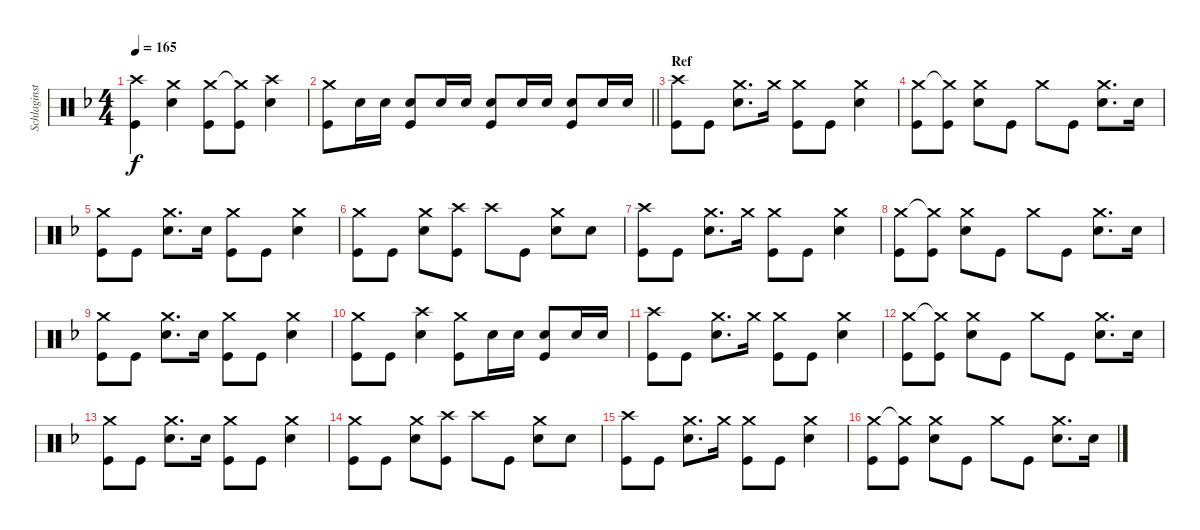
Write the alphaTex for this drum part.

\track ("Schlaginstrumente - Auswahl" "Schlaginst") {instrument percussion}
\staff {score}
\articulation defaults
\ts (4 4)
\tempo 165
\clef neutral
\ks f
("Crash high (hit)" "Kick (hit)").4{dy f} ("Crash medium (hit)" "Snare (hit) 2").4 ("Crash medium (hit)" "Kick (hit)").8 ("Crash medium (hit)"{t} "Kick (hit)").8 ("Crash high (hit)" "Snare (hit) 2").4 |
\barLineRight lightlight
("Crash medium (hit)" "Kick (hit)").8 "Snare (hit) 2".16 "Snare (hit) 2".16 ("Snare (hit) 2" "Kick (hit)").8 "Snare (hit) 2".16 "Snare (hit) 2".16 ("Snare (hit) 2" "Kick (hit)").8 "Snare (hit) 2".16 "Snare (hit) 2".16 ("Snare (hit) 2" "Kick (hit)").8 "Snare (hit) 2".16 "Snare (hit) 2".16 |
\section ("" "Ref")
("Crash high (hit)" "Kick (hit)").8 "Kick (hit)".8 ("Crash medium (hit)" "Snare (hit) 2").8{d} "Crash medium (hit)".16 ("Crash medium (hit)" "Kick (hit)").8 "Kick (hit)".8 ("Crash medium (hit)" "Snare (hit) 2").4 |
("Crash medium (hit)" "Kick (hit)").8 ("Crash medium (hit)"{t} "Kick (hit)").8 ("Crash medium (hit)" "Snare (hit) 2").8 "Kick (hit)".8 "Crash medium (hit)".8 "Kick (hit)".8 ("Crash medium (hit)" "Snare (hit) 2").8{d} "Snare (hit) 2".16 |
("Crash medium (hit)" "Kick (hit)").8 "Kick (hit)".8 ("Crash medium (hit)" "Snare (hit) 2").8{d} "Snare (hit) 2".16 ("Crash medium (hit)" "Kick (hit)").8 "Kick (hit)".8 ("Crash medium (hit)" "Snare (hit) 2").4 |
("Crash medium (hit)" "Kick (hit)").8 "Kick (hit)".8 ("Crash medium (hit)" "Snare (hit) 2").8 ("Crash high (hit)" "Kick (hit)").8 "Crash high (hit)".8 "Kick (hit)".8 ("Crash medium (hit)" "Snare (hit) 2").8 "Snare (hit) 2".8 |
("Crash high (hit)" "Kick (hit)").8 "Kick (hit)".8 ("Crash medium (hit)" "Snare (hit) 2").8{d} "Crash medium (hit)".16 ("Crash medium (hit)" "Kick (hit)").8 "Kick (hit)".8 ("Crash medium (hit)" "Snare (hit) 2").4 |
("Crash medium (hit)" "Kick (hit)").8 ("Crash medium (hit)"{t} "Kick (hit)").8 ("Crash medium (hit)" "Snare (hit) 2").8 "Kick (hit)".8 "Crash medium (hit)".8 "Kick (hit)".8 ("Crash medium (hit)" "Snare (hit) 2").8{d} "Snare (hit) 2".16 |
("Crash medium (hit)" "Kick (hit)").8 "Kick (hit)".8 ("Crash medium (hit)" "Snare (hit) 2").8{d} "Snare (hit) 2".16 ("Crash medium (hit)" "Kick (hit)").8 "Kick (hit)".8 ("Crash medium (hit)" "Snare (hit) 2").4 |
("Crash medium (hit)" "Kick (hit)").8 "Kick (hit)".8 ("Crash high (hit)" "Snare (hit) 2").4 ("Crash medium (hit)" "Kick (hit)").8 "Snare (hit) 2".16 "Snare (hit) 2".16 ("Snare (hit) 2" "Kick (hit)").8 "Snare (hit) 2".16 "Snare (hit) 2".16 |
("Crash high (hit)" "Kick (hit)").8 "Kick (hit)".8 ("Crash medium (hit)" "Snare (hit) 2").8{d} "Crash medium (hit)".16 ("Crash medium (hit)" "Kick (hit)").8 "Kick (hit)".8 ("Crash medium (hit)" "Snare (hit) 2").4 |
("Crash medium (hit)" "Kick (hit)").8 ("Crash medium (hit)"{t} "Kick (hit)").8 ("Crash medium (hit)" "Snare (hit) 2").8 "Kick (hit)".8 "Crash medium (hit)".8 "Kick (hit)".8 ("Crash medium (hit)" "Snare (hit) 2").8{d} "Snare (hit) 2".16 |
("Crash medium (hit)" "Kick (hit)").8 "Kick (hit)".8 ("Crash medium (hit)" "Snare (hit) 2").8{d} "Snare (hit) 2".16 ("Crash medium (hit)" "Kick (hit)").8 "Kick (hit)".8 ("Crash medium (hit)" "Snare (hit) 2").4 |
("Crash medium (hit)" "Kick (hit)").8 "Kick (hit)".8 ("Crash medium (hit)" "Snare (hit) 2").8 ("Crash high (hit)" "Kick (hit)").8 "Crash high (hit)".8 "Kick (hit)".8 ("Crash medium (hit)" "Snare (hit) 2").8 "Snare (hit) 2".8 |
("Crash high (hit)" "Kick (hit)").8 "Kick (hit)".8 ("Crash medium (hit)" "Snare (hit) 2").8{d} "Crash medium (hit)".16 ("Crash medium (hit)" "Kick (hit)").8 "Kick (hit)".8 ("Crash medium (hit)" "Snare (hit) 2").4 |
("Crash medium (hit)" "Kick (hit)").8 ("Crash medium (hit)"{t} "Kick (hit)").8 ("Crash medium (hit)" "Snare (hit) 2").8 "Kick (hit)".8 "Crash medium (hit)".8 "Kick (hit)".8 ("Crash medium (hit)" "Snare (hit) 2").8{d} "Snare (hit) 2".16
